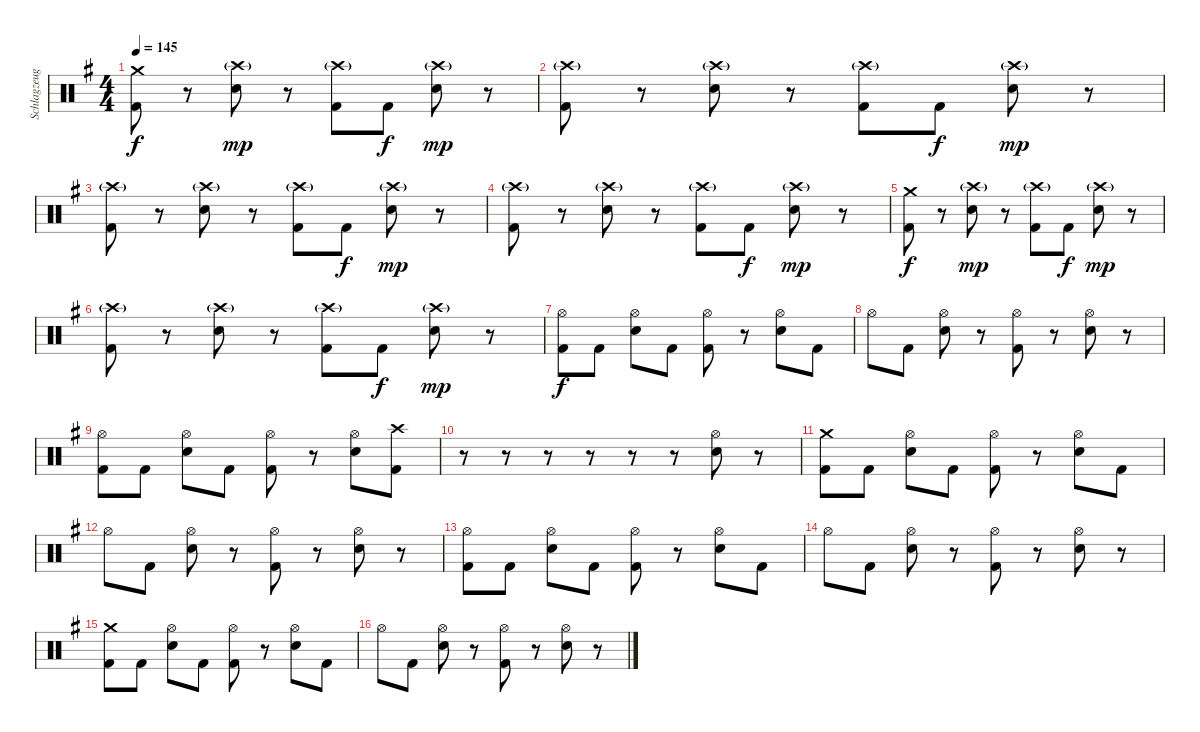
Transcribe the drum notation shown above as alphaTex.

\track ("Schlagzeug - Bela B. Felsenheimer" "Schlagzeug") {instrument percussion}
\staff {score}
\articulation defaults
\ts (4 4)
\tempo 145
\clef neutral
\ks g
("Crash medium (hit)" "Kick (hit) 2").8{dy f} r.8 ("Crash high (hit)"{g} "Snare (hit) 2").8{dy mp} r.8 ("Crash high (hit)"{g} "Kick (hit) 2").8 "Kick (hit) 2".8{dy f} ("Crash high (hit)"{g} "Snare (hit) 2").8{dy mp} r.8 |
("Crash high (hit)"{g} "Kick (hit) 2").8 r.8 ("Crash high (hit)"{g} "Snare (hit) 2").8 r.8 ("Crash high (hit)"{g} "Kick (hit) 2").8 "Kick (hit) 2".8{dy f} ("Crash high (hit)"{g} "Snare (hit) 2").8{dy mp} r.8 |
("Crash high (hit)"{g} "Kick (hit) 2").8 r.8 ("Crash high (hit)"{g} "Snare (hit) 2").8 r.8 ("Crash high (hit)"{g} "Kick (hit) 2").8 "Kick (hit) 2".8{dy f} ("Crash high (hit)"{g} "Snare (hit) 2").8{dy mp} r.8 |
("Crash high (hit)"{g} "Kick (hit) 2").8 r.8 ("Crash high (hit)"{g} "Snare (hit) 2").8 r.8 ("Crash high (hit)"{g} "Kick (hit) 2").8 "Kick (hit) 2".8{dy f} ("Crash high (hit)"{g} "Snare (hit) 2").8{dy mp} r.8 |
("Crash medium (hit)" "Kick (hit) 2").8{dy f} r.8 ("Crash high (hit)"{g} "Snare (hit) 2").8{dy mp} r.8 ("Crash high (hit)"{g} "Kick (hit) 2").8 "Kick (hit) 2".8{dy f} ("Crash high (hit)"{g} "Snare (hit) 2").8{dy mp} r.8 |
("Crash high (hit)"{g} "Kick (hit) 2").8 r.8 ("Crash high (hit)"{g} "Snare (hit) 2").8 r.8 ("Crash high (hit)"{g} "Kick (hit) 2").8 "Kick (hit) 2".8{dy f} ("Crash high (hit)"{g} "Snare (hit) 2").8{dy mp} r.8 |
("Hi-Hat (open)" "Kick (hit) 2").8{dy f} "Kick (hit) 2".8 ("Hi-Hat (open)" "Snare (hit) 2").8 "Kick (hit) 2".8 ("Hi-Hat (open)" "Kick (hit) 2").8 r.8 ("Hi-Hat (open)" "Snare (hit) 2").8 "Kick (hit) 2".8 |
"Hi-Hat (open)".8 "Kick (hit) 2".8 ("Hi-Hat (open)" "Snare (hit) 2").8 r.8 ("Hi-Hat (open)" "Kick (hit) 2").8 r.8 ("Hi-Hat (open)" "Snare (hit) 2").8 r.8 |
("Hi-Hat (open)" "Kick (hit) 2").8 "Kick (hit) 2".8 ("Hi-Hat (open)" "Snare (hit) 2").8 "Kick (hit) 2".8 ("Hi-Hat (open)" "Kick (hit) 2").8 r.8 ("Hi-Hat (open)" "Snare (hit) 2").8 ("Crash high (hit)" "Kick (hit) 2").8 |
r.8 r.8 r.8 r.8 r.8 r.8 ("Hi-Hat (open)" "Snare (hit) 2").8 r.8 |
("Crash medium (hit)" "Kick (hit) 2").8 "Kick (hit) 2".8 ("Hi-Hat (open)" "Snare (hit) 2").8 "Kick (hit) 2".8 ("Hi-Hat (open)" "Kick (hit) 2").8 r.8 ("Hi-Hat (open)" "Snare (hit) 2").8 "Kick (hit) 2".8 |
"Hi-Hat (open)".8 "Kick (hit) 2".8 ("Hi-Hat (open)" "Snare (hit) 2").8 r.8 ("Hi-Hat (open)" "Kick (hit) 2").8 r.8 ("Hi-Hat (open)" "Snare (hit) 2").8 r.8 |
("Hi-Hat (open)" "Kick (hit) 2").8 "Kick (hit) 2".8 ("Hi-Hat (open)" "Snare (hit) 2").8 "Kick (hit) 2".8 ("Hi-Hat (open)" "Kick (hit) 2").8 r.8 ("Hi-Hat (open)" "Snare (hit) 2").8 "Kick (hit) 2".8 |
"Hi-Hat (open)".8 "Kick (hit) 2".8 ("Hi-Hat (open)" "Snare (hit) 2").8 r.8 ("Hi-Hat (open)" "Kick (hit) 2").8 r.8 ("Hi-Hat (open)" "Snare (hit) 2").8 r.8 |
("Crash medium (hit)" "Kick (hit) 2").8 "Kick (hit) 2".8 ("Hi-Hat (open)" "Snare (hit) 2").8 "Kick (hit) 2".8 ("Hi-Hat (open)" "Kick (hit) 2").8 r.8 ("Hi-Hat (open)" "Snare (hit) 2").8 "Kick (hit) 2".8 |
"Hi-Hat (open)".8 "Kick (hit) 2".8 ("Hi-Hat (open)" "Snare (hit) 2").8 r.8 ("Hi-Hat (open)" "Kick (hit) 2").8 r.8 ("Hi-Hat (open)" "Snare (hit) 2").8 r.8
